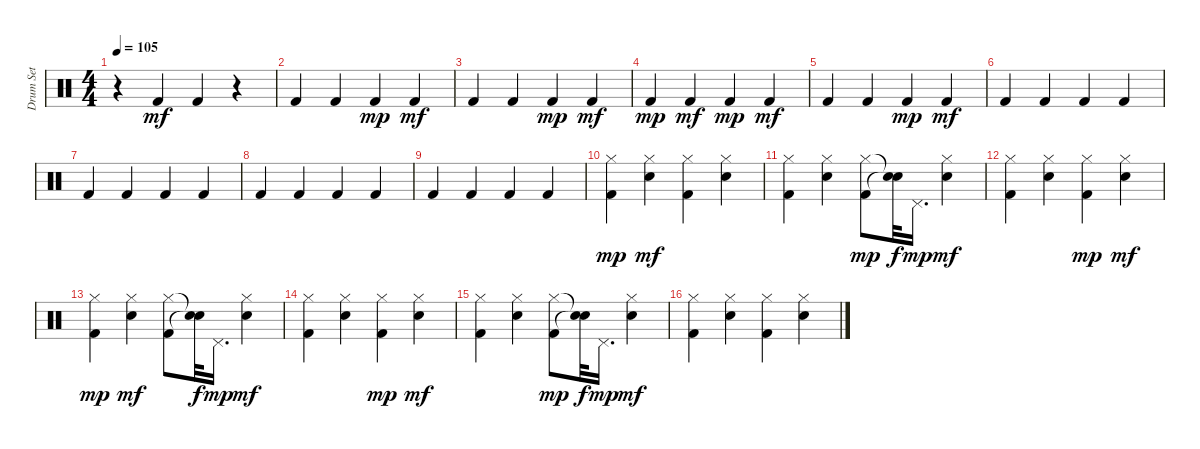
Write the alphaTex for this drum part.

\track ("Drum Set" "Drum Set") {instrument percussion}
\staff {score}
\articulation defaults
\ts (4 4)
\tempo 105
\clef neutral
\ks c
r.4{dy mp} "Kick (hit) 2".4{dy mf} "Kick (hit) 2".4 r.4 |
"Kick (hit) 2".4 "Kick (hit) 2".4 "Kick (hit) 2".4{dy mp} "Kick (hit) 2".4{dy mf} |
"Kick (hit) 2".4 "Kick (hit) 2".4 "Kick (hit) 2".4{dy mp} "Kick (hit) 2".4{dy mf} |
"Kick (hit) 2".4{dy mp} "Kick (hit) 2".4{dy mf} "Kick (hit) 2".4{dy mp} "Kick (hit) 2".4{dy mf} |
"Kick (hit) 2".4 "Kick (hit) 2".4 "Kick (hit) 2".4{dy mp} "Kick (hit) 2".4{dy mf} |
"Kick (hit) 2".4 "Kick (hit) 2".4 "Kick (hit) 2".4 "Kick (hit) 2".4 |
"Kick (hit) 2".4 "Kick (hit) 2".4 "Kick (hit) 2".4 "Kick (hit) 2".4 |
"Kick (hit) 2".4 "Kick (hit) 2".4 "Kick (hit) 2".4 "Kick (hit) 2".4 |
"Kick (hit) 2".4 "Kick (hit) 2".4 "Kick (hit) 2".4 "Kick (hit) 2".4 |
("Kick (hit) 2" "Hi-Hat (closed)").4{dy mp} ("Snare (hit) 2" "Hi-Hat (closed)").4{dy mf} ("Kick (hit) 2" "Hi-Hat (closed)").4 ("Snare (hit) 2" "Hi-Hat (closed)").4 |
("Kick (hit) 2" "Hi-Hat (closed)").4 ("Snare (hit) 2" "Hi-Hat (closed)").4 ("Kick (hit) 2" "Hi-Hat (closed)").8{dy mp} ("Snare (hit)"{t} "Snare (hit)"{t}).32{dy f} "Pedal Hi-Hat (hit)".16{d dy mp} ("Snare (hit) 2" "Hi-Hat (closed)").4{dy mf} |
("Kick (hit) 2" "Hi-Hat (closed)").4 ("Snare (hit) 2" "Hi-Hat (closed)").4 ("Kick (hit) 2" "Hi-Hat (closed)").4{dy mp} ("Snare (hit) 2" "Hi-Hat (closed)").4{dy mf} |
("Kick (hit) 2" "Hi-Hat (closed)").4{dy mp} ("Snare (hit) 2" "Hi-Hat (closed)").4{dy mf} ("Kick (hit) 2" "Hi-Hat (closed)").8 ("Snare (hit)"{t} "Snare (hit)"{t}).32{dy f} "Pedal Hi-Hat (hit)".16{d dy mp} ("Snare (hit) 2" "Hi-Hat (closed)").4{dy mf} |
("Kick (hit) 2" "Hi-Hat (closed)").4 ("Snare (hit) 2" "Hi-Hat (closed)").4 ("Kick (hit) 2" "Hi-Hat (closed)").4{dy mp} ("Snare (hit) 2" "Hi-Hat (closed)").4{dy mf} |
("Kick (hit) 2" "Hi-Hat (closed)").4 ("Snare (hit) 2" "Hi-Hat (closed)").4 ("Kick (hit) 2" "Hi-Hat (closed)").8{dy mp} ("Snare (hit)"{t} "Snare (hit)"{t}).32{dy f} "Pedal Hi-Hat (hit)".16{d dy mp} ("Snare (hit) 2" "Hi-Hat (closed)").4{dy mf} |
("Kick (hit) 2" "Hi-Hat (closed)").4 ("Snare (hit) 2" "Hi-Hat (closed)").4 ("Kick (hit) 2" "Hi-Hat (closed)").4 ("Snare (hit) 2" "Hi-Hat (closed)").4
